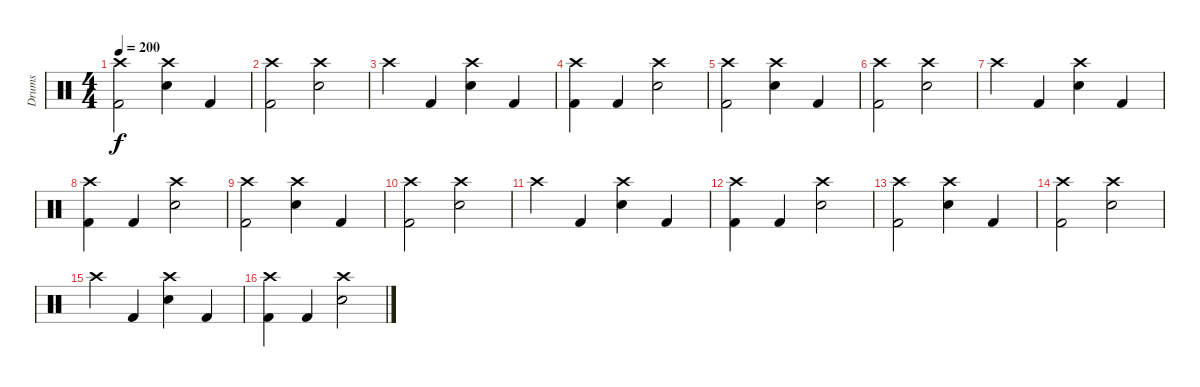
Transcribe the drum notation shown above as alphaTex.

\track ("Drums" "Drums") {instrument percussion}
\staff {score}
\articulation defaults
\ts (4 4)
\tempo 200
\clef neutral
\ks c
("Crash high (hit)" "Kick (hit) 2").2{dy f} ("Crash high (hit)" "Electric Snare (hit)").4 "Kick (hit) 2".4 |
("Crash high (hit)" "Kick (hit) 2").2 ("Crash high (hit)" "Electric Snare (hit)").2 |
"Crash high (hit)".4 "Kick (hit) 2".4 ("Crash high (hit)" "Electric Snare (hit)").4 "Kick (hit) 2".4 |
("Crash high (hit)" "Kick (hit) 2").4 "Kick (hit) 2".4 ("Crash high (hit)" "Electric Snare (hit)").2 |
("Crash high (hit)" "Kick (hit) 2").2 ("Crash high (hit)" "Electric Snare (hit)").4 "Kick (hit) 2".4 |
("Crash high (hit)" "Kick (hit) 2").2 ("Crash high (hit)" "Electric Snare (hit)").2 |
"Crash high (hit)".4 "Kick (hit) 2".4 ("Crash high (hit)" "Electric Snare (hit)").4 "Kick (hit) 2".4 |
("Crash high (hit)" "Kick (hit) 2").4 "Kick (hit) 2".4 ("Crash high (hit)" "Electric Snare (hit)").2 |
("Crash high (hit)" "Kick (hit) 2").2 ("Crash high (hit)" "Electric Snare (hit)").4 "Kick (hit) 2".4 |
("Crash high (hit)" "Kick (hit) 2").2 ("Crash high (hit)" "Electric Snare (hit)").2 |
"Crash high (hit)".4 "Kick (hit) 2".4 ("Crash high (hit)" "Electric Snare (hit)").4 "Kick (hit) 2".4 |
("Crash high (hit)" "Kick (hit) 2").4 "Kick (hit) 2".4 ("Crash high (hit)" "Electric Snare (hit)").2 |
("Crash high (hit)" "Kick (hit) 2").2 ("Crash high (hit)" "Electric Snare (hit)").4 "Kick (hit) 2".4 |
("Crash high (hit)" "Kick (hit) 2").2 ("Crash high (hit)" "Electric Snare (hit)").2 |
"Crash high (hit)".4 "Kick (hit) 2".4 ("Crash high (hit)" "Electric Snare (hit)").4 "Kick (hit) 2".4 |
("Crash high (hit)" "Kick (hit) 2").4 "Kick (hit) 2".4 ("Crash high (hit)" "Electric Snare (hit)").2
